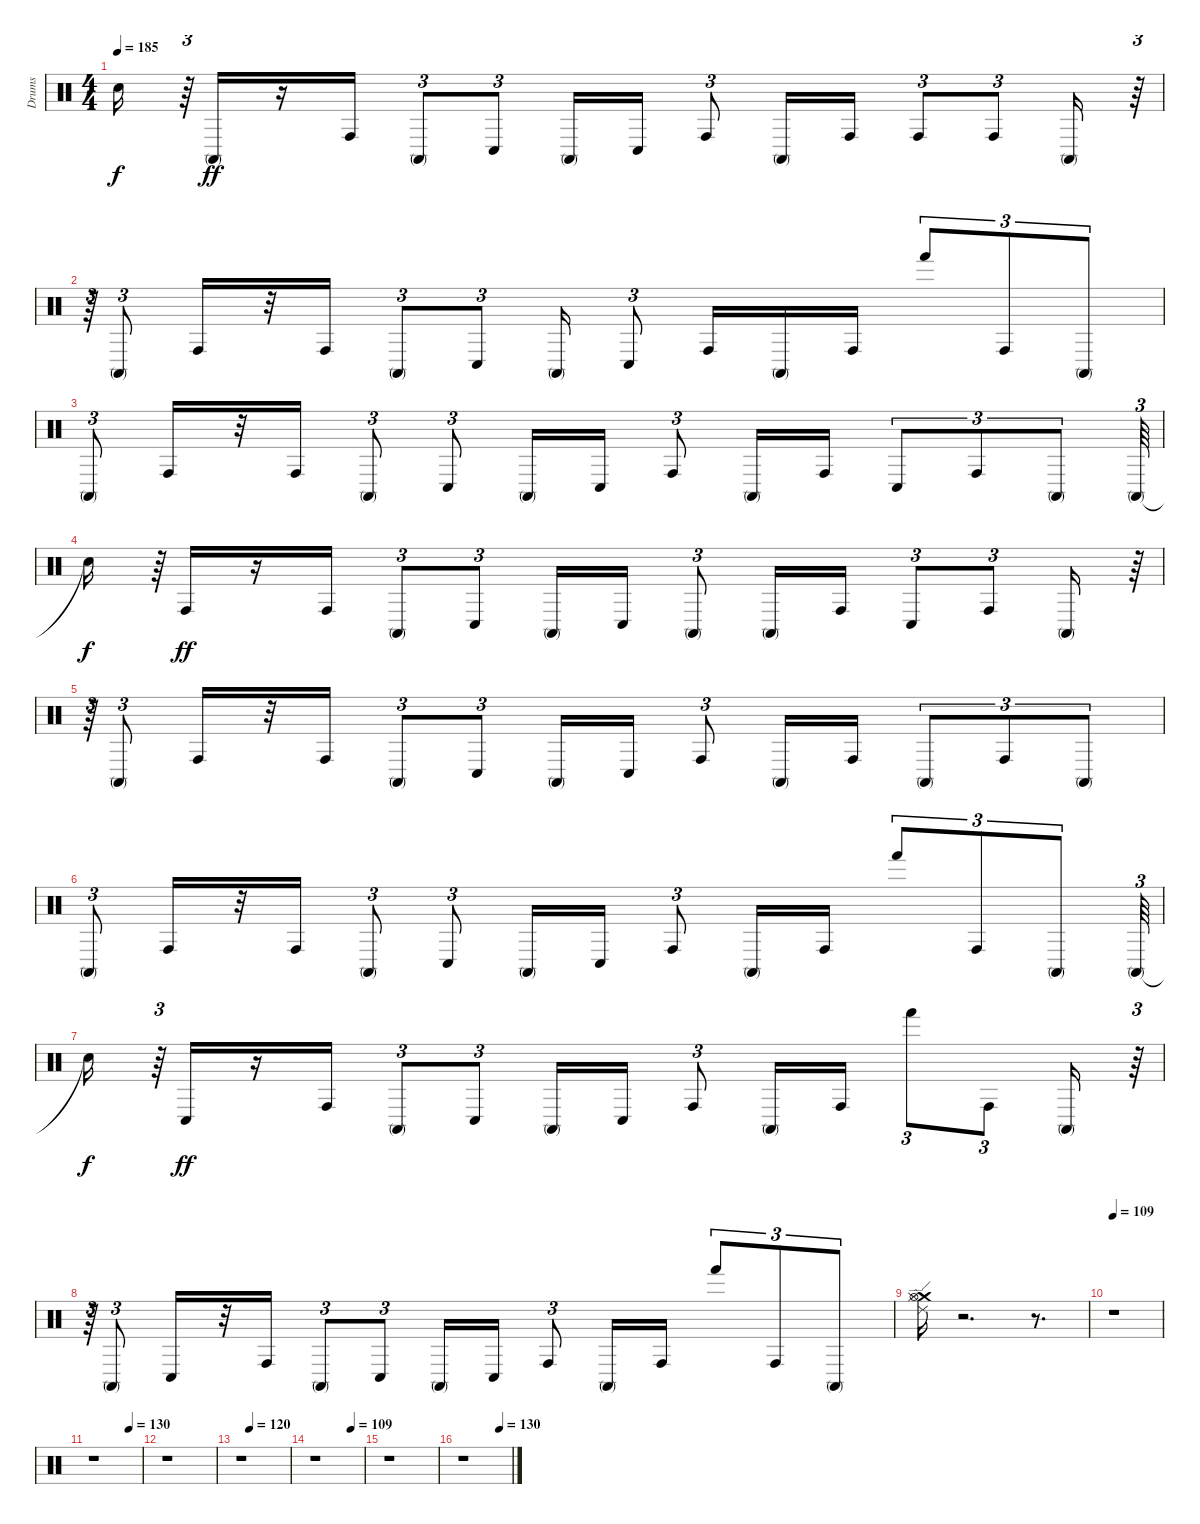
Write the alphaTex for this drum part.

\track ("Drums" "Drums") {instrument percussion}
\staff {score}
\articulation defaults
\ts (4 4)
\tempo 185
\clef neutral
\ks c "Snare (hit)"{t}.16{dy f}
r.64{tu (3 2)} "Conga high (mute)".16{dy ff} r.16 "Conga high (hit)".16 "Conga high (mute)".8{tu (3 2)} "Conga low (hit)".8{tu (3 2)} "Conga high (mute)".16 "Conga low (hit)".16 "Conga high (hit)".8{tu (3 2)} "Conga high (mute)".16 "Conga high (hit)".16 "Conga high (hit)".8{tu (3 2)} "Conga high (hit)".8{tu (3 2)} "Conga high (mute)".16 r.64{tu (3 2)} |
r.64{tu (3 2)} "Conga high (mute)".8{tu (3 2)} "Conga high (hit)".16 r.32 "Conga high (hit)".16 "Conga high (mute)".8{tu (3 2)} "Conga low (hit)".8{tu (3 2)} "Conga high (mute)".16 "Conga low (hit)".8{tu (3 2)} "Conga high (hit)".16 "Conga high (mute)".16 "Conga high (hit)".16 "Hand (hit)".8{tu (3 2)} "Conga high (hit)".8{tu (3 2)} "Conga high (mute)".8{tu (3 2)} |
"Conga high (mute)".8{tu (3 2)} "Conga high (hit)".16 r.32 "Conga high (hit)".16 "Conga high (mute)".8{tu (3 2)} "Conga low (hit)".8{tu (3 2)} "Conga high (mute)".16 "Conga low (hit)".16 "Conga high (hit)".8{tu (3 2)} "Conga high (mute)".16 "Conga high (hit)".16 "Conga low (hit)".8{tu (3 2)} "Conga high (hit)".8{tu (3 2)} "Conga high (mute)".8{tu (3 2)} "Conga high (mute)".64{tu (3 2)} |
"Snare (hit)"{t}.16{dy f} r.64{tu (3 2)} "Conga high (hit)".16{dy ff} r.16 "Conga high (hit)".16 "Conga high (mute)".8{tu (3 2)} "Conga low (hit)".8{tu (3 2)} "Conga high (mute)".16 "Conga low (hit)".16 "Conga high (mute)".8{tu (3 2)} "Conga high (mute)".16 "Conga high (hit)".16 "Conga low (hit)".8{tu (3 2)} "Conga high (hit)".8{tu (3 2)} "Conga high (mute)".16 r.64{tu (3 2)} |
r.64{tu (3 2)} "Conga high (mute)".8{tu (3 2)} "Conga high (hit)".16 r.32 "Conga high (hit)".16 "Conga high (mute)".8{tu (3 2)} "Conga low (hit)".8{tu (3 2)} "Conga high (mute)".16 "Conga low (hit)".16 "Conga high (hit)".8{tu (3 2)} "Conga high (mute)".16 "Conga high (hit)".16 "Conga high (mute)".8{tu (3 2)} "Conga high (hit)".8{tu (3 2)} "Conga high (mute)".8{tu (3 2)} |
"Conga high (mute)".8{tu (3 2)} "Conga high (hit)".16 r.32 "Conga high (hit)".16 "Conga high (mute)".8{tu (3 2)} "Conga low (hit)".8{tu (3 2)} "Conga high (mute)".16 "Conga low (hit)".16 "Conga high (hit)".8{tu (3 2)} "Conga high (mute)".16 "Conga high (hit)".16 "Hand (hit)".8{tu (3 2)} "Conga high (hit)".8{tu (3 2)} "Conga high (mute)".8{tu (3 2)} "Conga high (mute)".64{tu (3 2)} |
"Snare (hit)"{t}.16{dy f} r.64{tu (3 2)} "Conga low (hit)".16{dy ff} r.16 "Conga high (hit)".16 "Conga high (mute)".8{tu (3 2)} "Conga low (hit)".8{tu (3 2)} "Conga high (mute)".16 "Conga low (hit)".16 "Conga high (hit)".8{tu (3 2)} "Conga high (mute)".16 "Conga high (hit)".16 "Hand (hit)".8{tu (3 2)} "Conga high (hit)".8{tu (3 2)} "Conga high (mute)".16 r.64{tu (3 2)} |
r.64{tu (3 2)} "Conga high (mute)".8{tu (3 2)} "Conga low (hit)".16 r.32 "Conga high (hit)".16 "Conga high (mute)".8{tu (3 2)} "Conga low (hit)".8{tu (3 2)} "Conga high (mute)".16 "Conga low (hit)".16 "Conga high (hit)".8{tu (3 2)} "Conga high (mute)".16 "Conga high (hit)".16 "Hand (hit)".8{tu (3 2)} "Conga high (hit)".8{tu (3 2)} "Conga high (mute)".8{tu (3 2)} |
("Crash medium (hit)" "Hi-Hat (closed)" "Hi-Hat (open)" "Ride (edge) 2").16 r.2{d} r.8{d} |
\tempo 109
r.1 |
\tempo (130 0.75)
r.1 |
r.1 |
\tempo (120 0.1875)
r.1 |
\tempo (109 0.75)
r.1 |
r.1 |
\tempo (130 0.7604166666666666)
r.1
